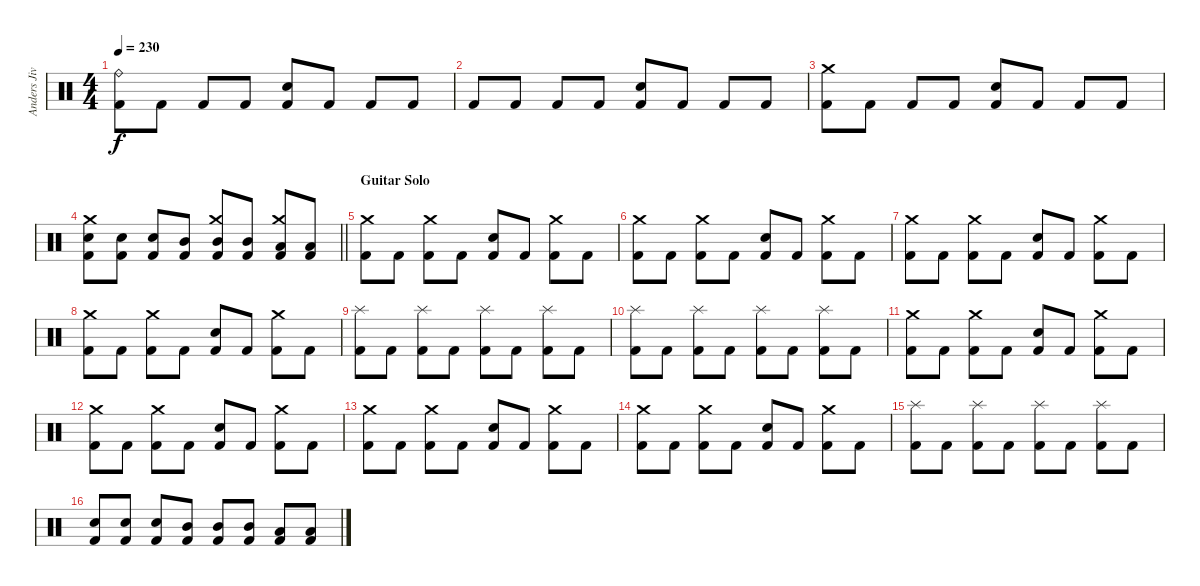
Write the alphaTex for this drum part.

\track ("Anders Jivarp" "Anders Jiv") {instrument percussion}
\staff {score}
\articulation defaults
\ts (4 4)
\tempo 230
\clef neutral
\ks c
("Kick (hit) 2" "Ride (bell)").8{dy f} "Kick (hit) 2".8 "Kick (hit) 2".8 "Kick (hit) 2".8 ("Kick (hit) 2" "Electric Snare (hit)").8 "Kick (hit) 2".8 "Kick (hit) 2".8 "Kick (hit) 2".8 |
"Kick (hit) 2".8 "Kick (hit) 2".8 "Kick (hit) 2".8 "Kick (hit) 2".8 ("Kick (hit) 2" "Electric Snare (hit)").8 "Kick (hit) 2".8 "Kick (hit) 2".8 "Kick (hit) 2".8 |
("Kick (hit) 2" "Crash medium (hit)").8 "Kick (hit) 2".8 "Kick (hit) 2".8 "Kick (hit) 2".8 ("Kick (hit) 2" "Electric Snare (hit)").8 "Kick (hit) 2".8 "Kick (hit) 2".8 "Kick (hit) 2".8 |
\barLineRight lightlight
("Kick (hit) 2" "Electric Snare (hit)" "Crash medium (hit)").8 ("Kick (hit) 2" "Electric Snare (hit)").8 ("Kick (hit) 2" "Electric Snare (hit)").8 ("Kick (hit) 2" "Mid Tom (hit)").8 ("Kick (hit) 2" "Mid Tom (hit)" "Crash medium (hit)").8 ("Kick (hit) 2" "Mid Tom (hit)").8 ("Kick (hit) 2" "Low Tom (hit)" "Crash medium (hit)").8 ("Kick (hit) 2" "Low Tom (hit)").8 |
\section ("" "Guitar Solo")
("Kick (hit) 2" "Crash medium (hit)").8 "Kick (hit) 2".8 ("Kick (hit) 2" "Crash medium (hit)").8 "Kick (hit) 2".8 ("Kick (hit) 2" "Electric Snare (hit)").8 "Kick (hit) 2".8 ("Kick (hit) 2" "Crash medium (hit)").8 "Kick (hit) 2".8 |
("Kick (hit) 2" "Crash medium (hit)").8 "Kick (hit) 2".8 ("Kick (hit) 2" "Crash medium (hit)").8 "Kick (hit) 2".8 ("Kick (hit) 2" "Electric Snare (hit)").8 "Kick (hit) 2".8 ("Kick (hit) 2" "Crash medium (hit)").8 "Kick (hit) 2".8 |
("Kick (hit) 2" "Crash medium (hit)").8 "Kick (hit) 2".8 ("Kick (hit) 2" "Crash medium (hit)").8 "Kick (hit) 2".8 ("Kick (hit) 2" "Electric Snare (hit)").8 "Kick (hit) 2".8 ("Kick (hit) 2" "Crash medium (hit)").8 "Kick (hit) 2".8 |
("Kick (hit) 2" "Crash medium (hit)").8 "Kick (hit) 2".8 ("Kick (hit) 2" "Crash medium (hit)").8 "Kick (hit) 2".8 ("Kick (hit) 2" "Electric Snare (hit)").8 "Kick (hit) 2".8 ("Kick (hit) 2" "Crash medium (hit)").8 "Kick (hit) 2".8 |
("Kick (hit) 2" "Splash (hit)").8 "Kick (hit) 2".8 ("Kick (hit) 2" "Splash (hit)").8 "Kick (hit) 2".8 ("Kick (hit) 2" "Splash (hit)").8 "Kick (hit) 2".8 ("Kick (hit) 2" "Splash (hit)").8 "Kick (hit) 2".8 |
("Kick (hit) 2" "Splash (hit)").8 "Kick (hit) 2".8 ("Kick (hit) 2" "Splash (hit)").8 "Kick (hit) 2".8 ("Kick (hit) 2" "Splash (hit)").8 "Kick (hit) 2".8 ("Kick (hit) 2" "Splash (hit)").8 "Kick (hit) 2".8 |
("Kick (hit) 2" "Crash medium (hit)").8 "Kick (hit) 2".8 ("Kick (hit) 2" "Crash medium (hit)").8 "Kick (hit) 2".8 ("Kick (hit) 2" "Electric Snare (hit)").8 "Kick (hit) 2".8 ("Kick (hit) 2" "Crash medium (hit)").8 "Kick (hit) 2".8 |
("Kick (hit) 2" "Crash medium (hit)").8 "Kick (hit) 2".8 ("Kick (hit) 2" "Crash medium (hit)").8 "Kick (hit) 2".8 ("Kick (hit) 2" "Electric Snare (hit)").8 "Kick (hit) 2".8 ("Kick (hit) 2" "Crash medium (hit)").8 "Kick (hit) 2".8 |
("Kick (hit) 2" "Crash medium (hit)").8 "Kick (hit) 2".8 ("Kick (hit) 2" "Crash medium (hit)").8 "Kick (hit) 2".8 ("Kick (hit) 2" "Electric Snare (hit)").8 "Kick (hit) 2".8 ("Kick (hit) 2" "Crash medium (hit)").8 "Kick (hit) 2".8 |
("Kick (hit) 2" "Crash medium (hit)").8 "Kick (hit) 2".8 ("Kick (hit) 2" "Crash medium (hit)").8 "Kick (hit) 2".8 ("Kick (hit) 2" "Electric Snare (hit)").8 "Kick (hit) 2".8 ("Kick (hit) 2" "Crash medium (hit)").8 "Kick (hit) 2".8 |
("Kick (hit) 2" "Splash (hit)").8 "Kick (hit) 2".8 ("Kick (hit) 2" "Splash (hit)").8 "Kick (hit) 2".8 ("Kick (hit) 2" "Splash (hit)").8 "Kick (hit) 2".8 ("Kick (hit) 2" "Splash (hit)").8 "Kick (hit) 2".8 |
("Kick (hit) 2" "Electric Snare (hit)").8 ("Kick (hit) 2" "Electric Snare (hit)").8 ("Kick (hit) 2" "Electric Snare (hit)").8 ("Kick (hit) 2" "Mid Tom (hit)").8 ("Kick (hit) 2" "Mid Tom (hit)").8 ("Kick (hit) 2" "Mid Tom (hit)").8 ("Kick (hit) 2" "Low Tom (hit)").8 ("Kick (hit) 2" "Low Tom (hit)").8
